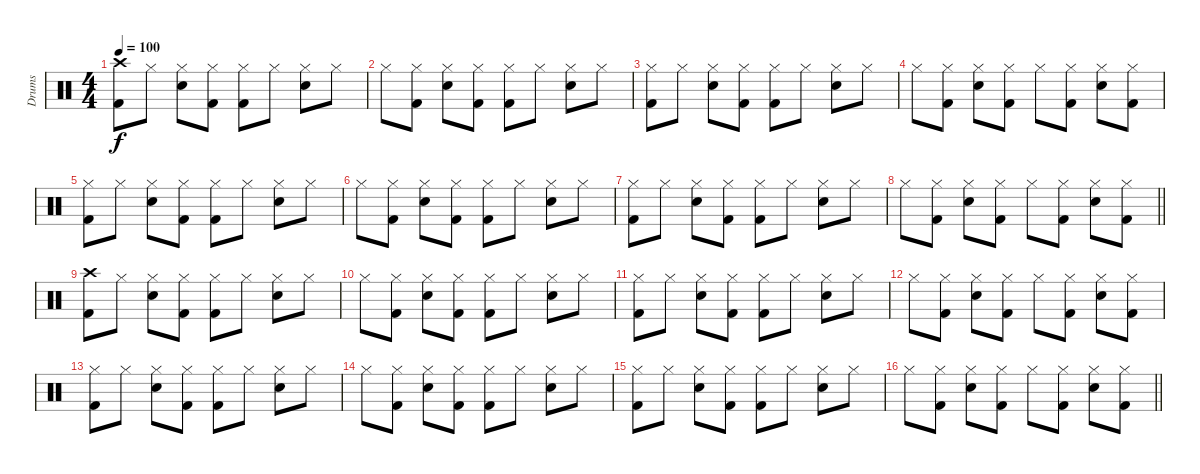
\track ("Drums" "Drums") {instrument percussion}
\staff {score}
\articulation defaults
\ts (4 4)
\tempo 100
\clef neutral
\ks c
("Crash high (hit)" "Kick (hit) 2").8{dy f} "Hi-Hat (closed)".8 ("Hi-Hat (closed)" "Snare (hit) 2").8 ("Hi-Hat (closed)" "Kick (hit) 2").8 ("Hi-Hat (closed)" "Kick (hit) 2").8 "Hi-Hat (closed)".8 ("Hi-Hat (closed)" "Snare (hit) 2").8 "Hi-Hat (closed)".8 |
"Hi-Hat (closed)".8 ("Hi-Hat (closed)" "Kick (hit) 2").8 ("Hi-Hat (closed)" "Snare (hit) 2").8 ("Hi-Hat (closed)" "Kick (hit) 2").8 ("Hi-Hat (closed)" "Kick (hit) 2").8 "Hi-Hat (closed)".8 ("Hi-Hat (closed)" "Snare (hit) 2").8 "Hi-Hat (closed)".8 |
("Hi-Hat (closed)" "Kick (hit) 2").8 "Hi-Hat (closed)".8 ("Hi-Hat (closed)" "Snare (hit) 2").8 ("Hi-Hat (closed)" "Kick (hit) 2").8 ("Hi-Hat (closed)" "Kick (hit) 2").8 "Hi-Hat (closed)".8 ("Hi-Hat (closed)" "Snare (hit) 2").8 "Hi-Hat (closed)".8 |
"Hi-Hat (closed)".8 ("Hi-Hat (closed)" "Kick (hit) 2").8 ("Hi-Hat (closed)" "Snare (hit) 2").8 ("Hi-Hat (closed)" "Kick (hit) 2").8 "Hi-Hat (closed)".8 ("Hi-Hat (closed)" "Kick (hit) 2").8 ("Hi-Hat (closed)" "Snare (hit) 2").8 ("Hi-Hat (closed)" "Kick (hit) 2").8 |
("Hi-Hat (closed)" "Kick (hit) 2").8 "Hi-Hat (closed)".8 ("Hi-Hat (closed)" "Snare (hit) 2").8 ("Hi-Hat (closed)" "Kick (hit) 2").8 ("Hi-Hat (closed)" "Kick (hit) 2").8 "Hi-Hat (closed)".8 ("Hi-Hat (closed)" "Snare (hit) 2").8 "Hi-Hat (closed)".8 |
"Hi-Hat (closed)".8 ("Hi-Hat (closed)" "Kick (hit) 2").8 ("Hi-Hat (closed)" "Snare (hit) 2").8 ("Hi-Hat (closed)" "Kick (hit) 2").8 ("Hi-Hat (closed)" "Kick (hit) 2").8 "Hi-Hat (closed)".8 ("Hi-Hat (closed)" "Snare (hit) 2").8 "Hi-Hat (closed)".8 |
("Hi-Hat (closed)" "Kick (hit) 2").8 "Hi-Hat (closed)".8 ("Hi-Hat (closed)" "Snare (hit) 2").8 ("Hi-Hat (closed)" "Kick (hit) 2").8 ("Hi-Hat (closed)" "Kick (hit) 2").8 "Hi-Hat (closed)".8 ("Hi-Hat (closed)" "Snare (hit) 2").8 "Hi-Hat (closed)".8 |
\barLineRight lightlight "Hi-Hat (closed)".8
("Hi-Hat (closed)" "Kick (hit) 2").8 ("Hi-Hat (closed)" "Snare (hit) 2").8 ("Hi-Hat (closed)" "Kick (hit) 2").8 "Hi-Hat (closed)".8 ("Hi-Hat (closed)" "Kick (hit) 2").8 ("Hi-Hat (closed)" "Snare (hit) 2").8 ("Hi-Hat (closed)" "Kick (hit) 2").8 |
("Crash high (hit)" "Kick (hit) 2").8 "Hi-Hat (closed)".8 ("Hi-Hat (closed)" "Snare (hit) 2").8 ("Hi-Hat (closed)" "Kick (hit) 2").8 ("Hi-Hat (closed)" "Kick (hit) 2").8 "Hi-Hat (closed)".8 ("Hi-Hat (closed)" "Snare (hit) 2").8 "Hi-Hat (closed)".8 |
"Hi-Hat (closed)".8 ("Hi-Hat (closed)" "Kick (hit) 2").8 ("Hi-Hat (closed)" "Snare (hit) 2").8 ("Hi-Hat (closed)" "Kick (hit) 2").8 ("Hi-Hat (closed)" "Kick (hit) 2").8 "Hi-Hat (closed)".8 ("Hi-Hat (closed)" "Snare (hit) 2").8 "Hi-Hat (closed)".8 |
("Hi-Hat (closed)" "Kick (hit) 2").8 "Hi-Hat (closed)".8 ("Hi-Hat (closed)" "Snare (hit) 2").8 ("Hi-Hat (closed)" "Kick (hit) 2").8 ("Hi-Hat (closed)" "Kick (hit) 2").8 "Hi-Hat (closed)".8 ("Hi-Hat (closed)" "Snare (hit) 2").8 "Hi-Hat (closed)".8 |
"Hi-Hat (closed)".8 ("Hi-Hat (closed)" "Kick (hit) 2").8 ("Hi-Hat (closed)" "Snare (hit) 2").8 ("Hi-Hat (closed)" "Kick (hit) 2").8 "Hi-Hat (closed)".8 ("Hi-Hat (closed)" "Kick (hit) 2").8 ("Hi-Hat (closed)" "Snare (hit) 2").8 ("Hi-Hat (closed)" "Kick (hit) 2").8 |
("Hi-Hat (closed)" "Kick (hit) 2").8 "Hi-Hat (closed)".8 ("Hi-Hat (closed)" "Snare (hit) 2").8 ("Hi-Hat (closed)" "Kick (hit) 2").8 ("Hi-Hat (closed)" "Kick (hit) 2").8 "Hi-Hat (closed)".8 ("Hi-Hat (closed)" "Snare (hit) 2").8 "Hi-Hat (closed)".8 |
"Hi-Hat (closed)".8 ("Hi-Hat (closed)" "Kick (hit) 2").8 ("Hi-Hat (closed)" "Snare (hit) 2").8 ("Hi-Hat (closed)" "Kick (hit) 2").8 ("Hi-Hat (closed)" "Kick (hit) 2").8 "Hi-Hat (closed)".8 ("Hi-Hat (closed)" "Snare (hit) 2").8 "Hi-Hat (closed)".8 |
("Hi-Hat (closed)" "Kick (hit) 2").8 "Hi-Hat (closed)".8 ("Hi-Hat (closed)" "Snare (hit) 2").8 ("Hi-Hat (closed)" "Kick (hit) 2").8 ("Hi-Hat (closed)" "Kick (hit) 2").8 "Hi-Hat (closed)".8 ("Hi-Hat (closed)" "Snare (hit) 2").8 "Hi-Hat (closed)".8 |
\barLineRight lightlight "Hi-Hat (closed)".8
("Hi-Hat (closed)" "Kick (hit) 2").8 ("Hi-Hat (closed)" "Snare (hit) 2").8 ("Hi-Hat (closed)" "Kick (hit) 2").8 "Hi-Hat (closed)".8 ("Hi-Hat (closed)" "Kick (hit) 2").8 ("Hi-Hat (closed)" "Snare (hit) 2").8 ("Hi-Hat (closed)" "Kick (hit) 2").8
